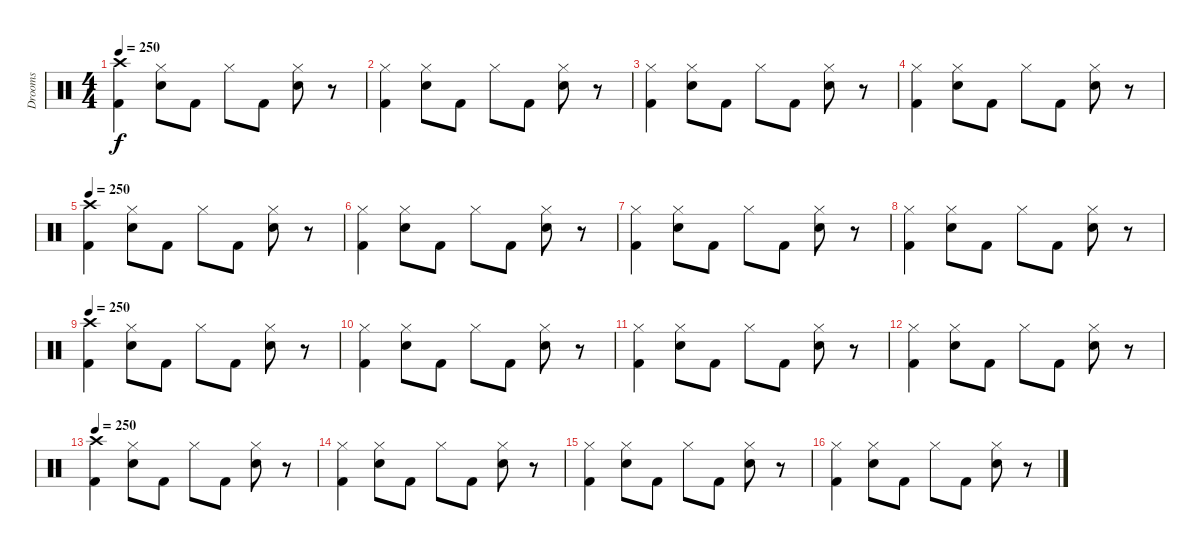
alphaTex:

\track ("Drooms" "Drooms") {instrument percussion}
\staff {score}
\articulation defaults
\ts (4 4)
\tempo 250
\clef neutral
\ks c
("Crash high (hit)" "Kick (hit) 2").4{dy f} ("Hi-Hat (closed)" "Snare (hit) 2").8 "Kick (hit) 2".8 "Hi-Hat (closed)".8 "Kick (hit) 2".8 ("Hi-Hat (closed)" "Snare (hit) 2").8 r.8 |
("Hi-Hat (closed)" "Kick (hit) 2").4 ("Hi-Hat (closed)" "Snare (hit) 2").8 "Kick (hit) 2".8 "Hi-Hat (closed)".8 "Kick (hit) 2".8 ("Hi-Hat (closed)" "Snare (hit) 2").8 r.8 |
("Hi-Hat (closed)" "Kick (hit) 2").4 ("Hi-Hat (closed)" "Snare (hit) 2").8 "Kick (hit) 2".8 "Hi-Hat (closed)".8 "Kick (hit) 2".8 ("Hi-Hat (closed)" "Snare (hit) 2").8 r.8 |
("Hi-Hat (closed)" "Kick (hit) 2").4 ("Hi-Hat (closed)" "Snare (hit) 2").8 "Kick (hit) 2".8 "Hi-Hat (closed)".8 "Kick (hit) 2".8 ("Hi-Hat (closed)" "Snare (hit) 2").8 r.8 |
\tempo 250
("Crash high (hit)" "Kick (hit) 2").4 ("Hi-Hat (closed)" "Snare (hit) 2").8 "Kick (hit) 2".8 "Hi-Hat (closed)".8 "Kick (hit) 2".8 ("Hi-Hat (closed)" "Snare (hit) 2").8 r.8 |
("Hi-Hat (closed)" "Kick (hit) 2").4 ("Hi-Hat (closed)" "Snare (hit) 2").8 "Kick (hit) 2".8 "Hi-Hat (closed)".8 "Kick (hit) 2".8 ("Hi-Hat (closed)" "Snare (hit) 2").8 r.8 |
("Hi-Hat (closed)" "Kick (hit) 2").4 ("Hi-Hat (closed)" "Snare (hit) 2").8 "Kick (hit) 2".8 "Hi-Hat (closed)".8 "Kick (hit) 2".8 ("Hi-Hat (closed)" "Snare (hit) 2").8 r.8 |
("Hi-Hat (closed)" "Kick (hit) 2").4 ("Hi-Hat (closed)" "Snare (hit) 2").8 "Kick (hit) 2".8 "Hi-Hat (closed)".8 "Kick (hit) 2".8 ("Hi-Hat (closed)" "Snare (hit) 2").8 r.8 |
\tempo 250
("Crash high (hit)" "Kick (hit) 2").4 ("Hi-Hat (closed)" "Snare (hit) 2").8 "Kick (hit) 2".8 "Hi-Hat (closed)".8 "Kick (hit) 2".8 ("Hi-Hat (closed)" "Snare (hit) 2").8 r.8 |
("Hi-Hat (closed)" "Kick (hit) 2").4 ("Hi-Hat (closed)" "Snare (hit) 2").8 "Kick (hit) 2".8 "Hi-Hat (closed)".8 "Kick (hit) 2".8 ("Hi-Hat (closed)" "Snare (hit) 2").8 r.8 |
("Hi-Hat (closed)" "Kick (hit) 2").4 ("Hi-Hat (closed)" "Snare (hit) 2").8 "Kick (hit) 2".8 "Hi-Hat (closed)".8 "Kick (hit) 2".8 ("Hi-Hat (closed)" "Snare (hit) 2").8 r.8 |
("Hi-Hat (closed)" "Kick (hit) 2").4 ("Hi-Hat (closed)" "Snare (hit) 2").8 "Kick (hit) 2".8 "Hi-Hat (closed)".8 "Kick (hit) 2".8 ("Hi-Hat (closed)" "Snare (hit) 2").8 r.8 |
\tempo 250
("Crash high (hit)" "Kick (hit) 2").4 ("Hi-Hat (closed)" "Snare (hit) 2").8 "Kick (hit) 2".8 "Hi-Hat (closed)".8 "Kick (hit) 2".8 ("Hi-Hat (closed)" "Snare (hit) 2").8 r.8 |
("Hi-Hat (closed)" "Kick (hit) 2").4 ("Hi-Hat (closed)" "Snare (hit) 2").8 "Kick (hit) 2".8 "Hi-Hat (closed)".8 "Kick (hit) 2".8 ("Hi-Hat (closed)" "Snare (hit) 2").8 r.8 |
("Hi-Hat (closed)" "Kick (hit) 2").4 ("Hi-Hat (closed)" "Snare (hit) 2").8 "Kick (hit) 2".8 "Hi-Hat (closed)".8 "Kick (hit) 2".8 ("Hi-Hat (closed)" "Snare (hit) 2").8 r.8 |
("Hi-Hat (closed)" "Kick (hit) 2").4 ("Hi-Hat (closed)" "Snare (hit) 2").8 "Kick (hit) 2".8 "Hi-Hat (closed)".8 "Kick (hit) 2".8 ("Hi-Hat (closed)" "Snare (hit) 2").8 r.8
